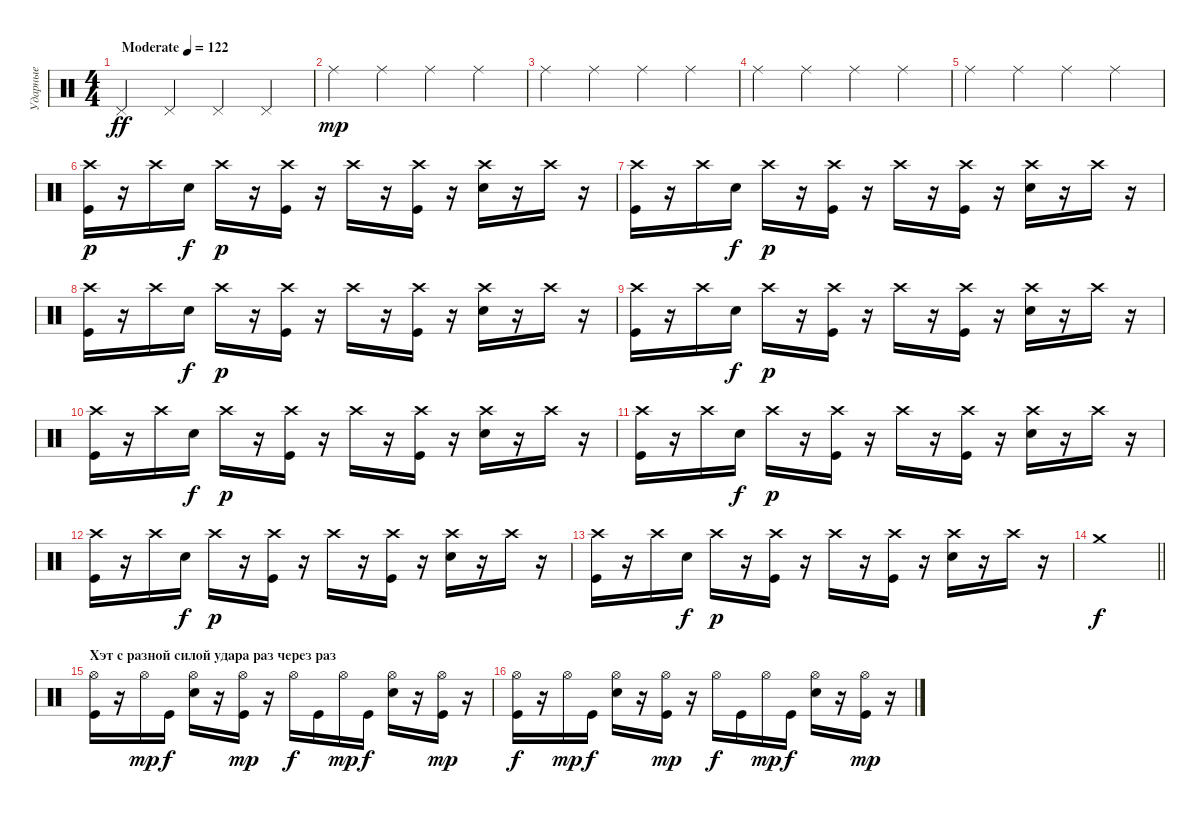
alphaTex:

\track ("Ударные" "Ударные") {instrument percussion}
\staff {score}
\articulation defaults
\ts (4 4)
\tempo (122 "Moderate")
\clef neutral
\ks c "Pedal Hi-Hat (hit)".4{dy ff} "Pedal Hi-Hat (hit)".4 "Pedal Hi-Hat (hit)".4 "Pedal Hi-Hat (hit)".4
|
"Ride (middle)".4{dy mp} "Ride (middle)".4 "Ride (middle)".4 "Ride (middle)".4 |
"Ride (middle)".4 "Ride (middle)".4 "Ride (middle)".4 "Ride (middle)".4 |
"Ride (middle)".4 "Ride (middle)".4 "Ride (middle)".4 "Ride (middle)".4 |
"Ride (middle)".4 "Ride (middle)".4 "Ride (middle)".4 "Ride (middle)".4 |
("Crash high (hit)" "Kick (hit)").16{dy p} r.16 "Crash high (hit)".16 "Electric Snare (hit)".16{dy f} "Crash high (hit)".16{dy p} r.16 ("Crash high (hit)" "Kick (hit)").16 r.16 "Crash high (hit)".16 r.16 ("Crash high (hit)" "Kick (hit)").16 r.16 ("Crash high (hit)" "Electric Snare (hit)").16 r.16 "Crash high (hit)".16 r.16 |
("Crash high (hit)" "Kick (hit)").16 r.16 "Crash high (hit)".16 "Electric Snare (hit)".16{dy f} "Crash high (hit)".16{dy p} r.16 ("Crash high (hit)" "Kick (hit)").16 r.16 "Crash high (hit)".16 r.16 ("Crash high (hit)" "Kick (hit)").16 r.16 ("Crash high (hit)" "Electric Snare (hit)").16 r.16 "Crash high (hit)".16 r.16 |
("Crash high (hit)" "Kick (hit)").16 r.16 "Crash high (hit)".16 "Electric Snare (hit)".16{dy f} "Crash high (hit)".16{dy p} r.16 ("Crash high (hit)" "Kick (hit)").16 r.16 "Crash high (hit)".16 r.16 ("Crash high (hit)" "Kick (hit)").16 r.16 ("Crash high (hit)" "Electric Snare (hit)").16 r.16 "Crash high (hit)".16 r.16 |
("Crash high (hit)" "Kick (hit)").16 r.16 "Crash high (hit)".16 "Electric Snare (hit)".16{dy f} "Crash high (hit)".16{dy p} r.16 ("Crash high (hit)" "Kick (hit)").16 r.16 "Crash high (hit)".16 r.16 ("Crash high (hit)" "Kick (hit)").16 r.16 ("Crash high (hit)" "Electric Snare (hit)").16 r.16 "Crash high (hit)".16 r.16 |
("Crash high (hit)" "Kick (hit)").16 r.16 "Crash high (hit)".16 "Electric Snare (hit)".16{dy f} "Crash high (hit)".16{dy p} r.16 ("Crash high (hit)" "Kick (hit)").16 r.16 "Crash high (hit)".16 r.16 ("Crash high (hit)" "Kick (hit)").16 r.16 ("Crash high (hit)" "Electric Snare (hit)").16 r.16 "Crash high (hit)".16 r.16 |
("Crash high (hit)" "Kick (hit)").16 r.16 "Crash high (hit)".16 "Electric Snare (hit)".16{dy f} "Crash high (hit)".16{dy p} r.16 ("Crash high (hit)" "Kick (hit)").16 r.16 "Crash high (hit)".16 r.16 ("Crash high (hit)" "Kick (hit)").16 r.16 ("Crash high (hit)" "Electric Snare (hit)").16 r.16 "Crash high (hit)".16 r.16 |
("Crash high (hit)" "Kick (hit)").16 r.16 "Crash high (hit)".16 "Electric Snare (hit)".16{dy f} "Crash high (hit)".16{dy p} r.16 ("Crash high (hit)" "Kick (hit)").16 r.16 "Crash high (hit)".16 r.16 ("Crash high (hit)" "Kick (hit)").16 r.16 ("Crash high (hit)" "Electric Snare (hit)").16 r.16 "Crash high (hit)".16 r.16 |
("Crash high (hit)" "Kick (hit)").16 r.16 "Crash high (hit)".16 "Electric Snare (hit)".16{dy f} "Crash high (hit)".16{dy p} r.16 ("Crash high (hit)" "Kick (hit)").16 r.16 "Crash high (hit)".16 r.16 ("Crash high (hit)" "Kick (hit)").16 r.16 ("Crash high (hit)" "Electric Snare (hit)").16 r.16 "Crash high (hit)".16 r.16 |
\barLineRight lightlight "Crash medium (hit)".1{dy f}
|
\section ("" "Хэт с разной силой удара раз через раз")
("Hi-Hat (open)" "Kick (hit)").16 r.16 "Hi-Hat (open)".16{dy mp} "Kick (hit)".16{dy f} ("Hi-Hat (open)" "Electric Snare (hit)").16 r.16 ("Hi-Hat (open)" "Kick (hit)").16{dy mp} r.16 "Hi-Hat (open)".16{dy f} "Kick (hit)".16 "Hi-Hat (open)".16{dy mp} "Kick (hit)".16{dy f} ("Hi-Hat (open)" "Electric Snare (hit)").16 r.16 ("Hi-Hat (open)" "Kick (hit)").16{dy mp} r.16 |
("Hi-Hat (open)" "Kick (hit)").16{dy f} r.16 "Hi-Hat (open)".16{dy mp} "Kick (hit)".16{dy f} ("Hi-Hat (open)" "Electric Snare (hit)").16 r.16 ("Hi-Hat (open)" "Kick (hit)").16{dy mp} r.16 "Hi-Hat (open)".16{dy f} "Kick (hit)".16 "Hi-Hat (open)".16{dy mp} "Kick (hit)".16{dy f} ("Hi-Hat (open)" "Electric Snare (hit)").16 r.16 ("Hi-Hat (open)" "Kick (hit)").16{dy mp} r.16
